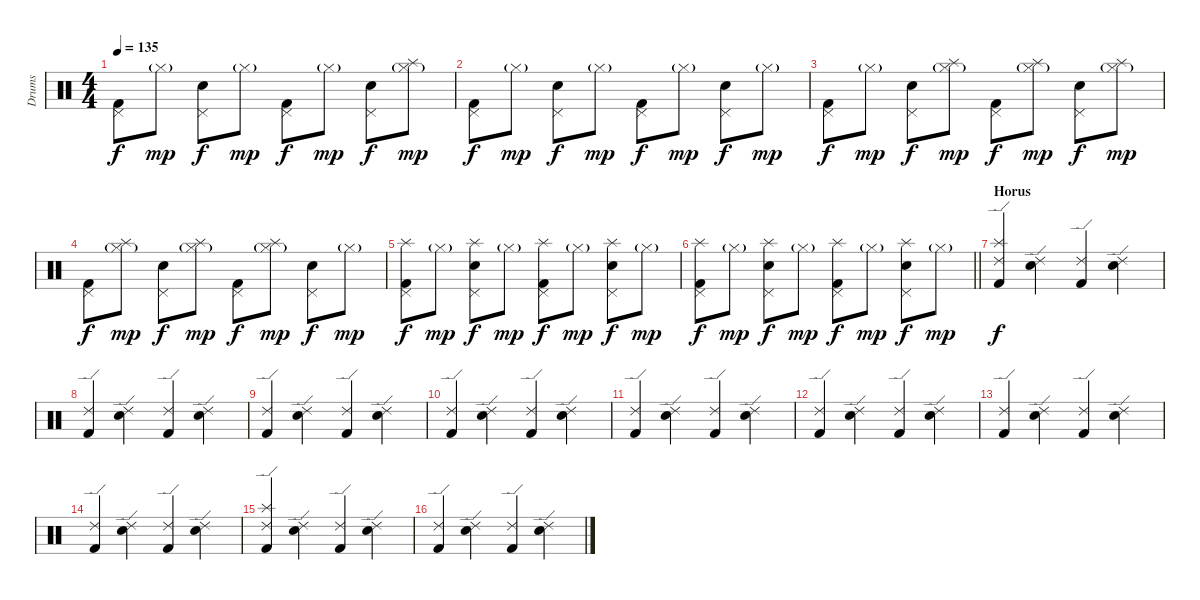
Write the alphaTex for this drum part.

\track ("Drums" "Drums") {instrument percussion}
\staff {score}
\articulation defaults
\ts (4 4)
\tempo 135
\clef neutral
\ks c
("Kick (hit) 2" "Pedal Hi-Hat (hit)").8{dy f} "Hi-Hat (closed)"{g}.8{dy mp} ("Snare (hit) 2" "Pedal Hi-Hat (hit)").8{dy f} "Hi-Hat (closed)"{g}.8{dy mp} ("Kick (hit) 2" "Pedal Hi-Hat (hit)").8{dy f} "Hi-Hat (closed)"{g}.8{dy mp} ("Snare (hit) 2" "Pedal Hi-Hat (hit)").8{dy f} ("Hi-Hat (closed)"{g} "Splash (hit)").8{dy mp} |
("Kick (hit) 2" "Pedal Hi-Hat (hit)").8{dy f} "Hi-Hat (closed)"{g}.8{dy mp} ("Snare (hit) 2" "Pedal Hi-Hat (hit)").8{dy f} "Hi-Hat (closed)"{g}.8{dy mp} ("Kick (hit) 2" "Pedal Hi-Hat (hit)").8{dy f} "Hi-Hat (closed)"{g}.8{dy mp} ("Snare (hit) 2" "Pedal Hi-Hat (hit)").8{dy f} "Hi-Hat (closed)"{g}.8{dy mp} |
("Kick (hit) 2" "Pedal Hi-Hat (hit)").8{dy f} "Hi-Hat (closed)"{g}.8{dy mp} ("Snare (hit) 2" "Pedal Hi-Hat (hit)").8{dy f} ("Hi-Hat (closed)"{g} "Splash (hit)").8{dy mp} ("Kick (hit) 2" "Pedal Hi-Hat (hit)").8{dy f} ("Hi-Hat (closed)"{g} "Splash (hit)").8{dy mp} ("Snare (hit) 2" "Pedal Hi-Hat (hit)").8{dy f} ("Hi-Hat (closed)"{g} "Splash (hit)").8{dy mp} |
("Kick (hit) 2" "Pedal Hi-Hat (hit)").8{dy f} ("Hi-Hat (closed)"{g} "Splash (hit)").8{dy mp} ("Snare (hit) 2" "Pedal Hi-Hat (hit)").8{dy f} ("Hi-Hat (closed)"{g} "Splash (hit)").8{dy mp} ("Kick (hit) 2" "Pedal Hi-Hat (hit)").8{dy f} ("Hi-Hat (closed)"{g} "Splash (hit)").8{dy mp} ("Snare (hit) 2" "Pedal Hi-Hat (hit)").8{dy f} "Hi-Hat (closed)"{g}.8{dy mp} |
("Kick (hit) 2" "Pedal Hi-Hat (hit)" "Splash (hit)").8{dy f} "Hi-Hat (closed)"{g}.8{dy mp} ("Snare (hit) 2" "Pedal Hi-Hat (hit)" "Splash (hit)").8{dy f} "Hi-Hat (closed)"{g}.8{dy mp} ("Kick (hit) 2" "Pedal Hi-Hat (hit)" "Splash (hit)").8{dy f} "Hi-Hat (closed)"{g}.8{dy mp} ("Snare (hit) 2" "Pedal Hi-Hat (hit)" "Splash (hit)").8{dy f} "Hi-Hat (closed)"{g}.8{dy mp} |
\barLineRight lightlight
("Kick (hit) 2" "Pedal Hi-Hat (hit)" "Splash (hit)").8{dy f} "Hi-Hat (closed)"{g}.8{dy mp} ("Snare (hit) 2" "Pedal Hi-Hat (hit)" "Splash (hit)").8{dy f} "Hi-Hat (closed)"{g}.8{dy mp} ("Kick (hit) 2" "Pedal Hi-Hat (hit)" "Splash (hit)").8{dy f} "Hi-Hat (closed)"{g}.8{dy mp} ("Snare (hit) 2" "Pedal Hi-Hat (hit)" "Splash (hit)").8{dy f} "Hi-Hat (closed)"{g}.8{dy mp} |
\section ("" "Horus")
("Kick (hit) 2" "Ride (edge) 2" "Splash (hit)").4{dy f} ("Snare (hit) 2" "Ride (edge) 2").4 ("Kick (hit) 2" "Ride (edge) 2").4 ("Snare (hit) 2" "Ride (edge) 2").4 |
("Kick (hit) 2" "Ride (edge) 2").4 ("Snare (hit) 2" "Ride (edge) 2").4 ("Kick (hit) 2" "Ride (edge) 2").4 ("Snare (hit) 2" "Ride (edge) 2").4 |
("Kick (hit) 2" "Ride (edge) 2").4 ("Snare (hit) 2" "Ride (edge) 2").4 ("Kick (hit) 2" "Ride (edge) 2").4 ("Snare (hit) 2" "Ride (edge) 2").4 |
("Kick (hit) 2" "Ride (edge) 2").4 ("Snare (hit) 2" "Ride (edge) 2").4 ("Kick (hit) 2" "Ride (edge) 2").4 ("Snare (hit) 2" "Ride (edge) 2").4 |
("Kick (hit) 2" "Ride (edge) 2").4 ("Snare (hit) 2" "Ride (edge) 2").4 ("Kick (hit) 2" "Ride (edge) 2").4 ("Snare (hit) 2" "Ride (edge) 2").4 |
("Kick (hit) 2" "Ride (edge) 2").4 ("Snare (hit) 2" "Ride (edge) 2").4 ("Kick (hit) 2" "Ride (edge) 2").4 ("Snare (hit) 2" "Ride (edge) 2").4 |
("Kick (hit) 2" "Ride (edge) 2").4 ("Snare (hit) 2" "Ride (edge) 2").4 ("Kick (hit) 2" "Ride (edge) 2").4 ("Snare (hit) 2" "Ride (edge) 2").4 |
("Kick (hit) 2" "Ride (edge) 2").4 ("Snare (hit) 2" "Ride (edge) 2").4 ("Kick (hit) 2" "Ride (edge) 2").4 ("Snare (hit) 2" "Ride (edge) 2").4 |
("Kick (hit) 2" "Ride (edge) 2" "Splash (hit)").4 ("Snare (hit) 2" "Ride (edge) 2").4 ("Kick (hit) 2" "Ride (edge) 2").4 ("Snare (hit) 2" "Ride (edge) 2").4 |
("Kick (hit) 2" "Ride (edge) 2").4 ("Snare (hit) 2" "Ride (edge) 2").4 ("Kick (hit) 2" "Ride (edge) 2").4 ("Snare (hit) 2" "Ride (edge) 2").4
